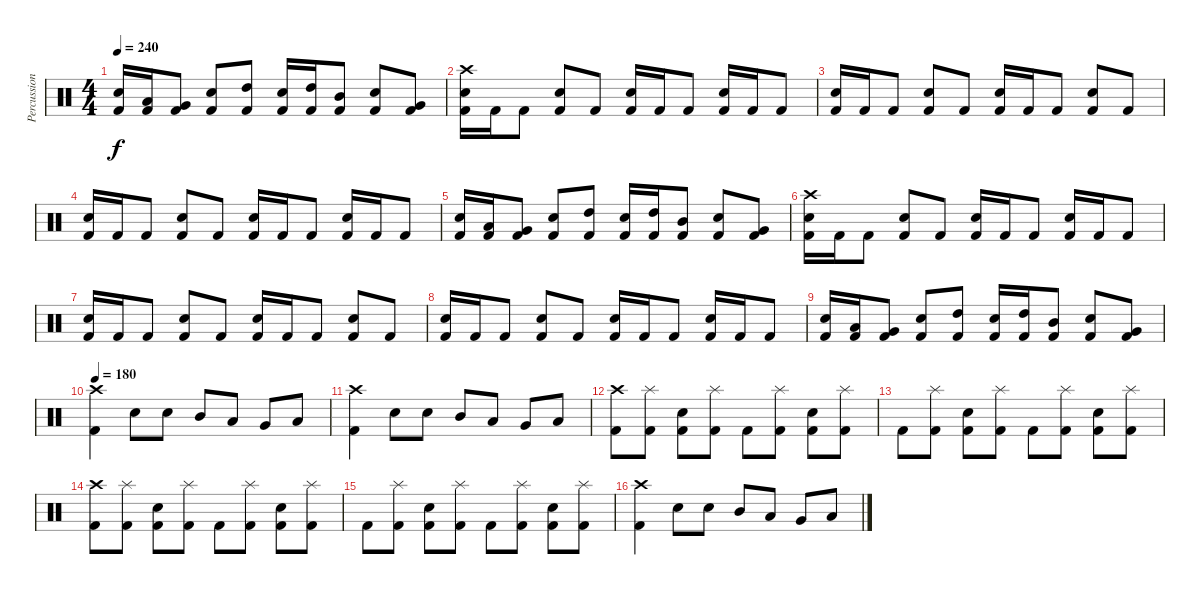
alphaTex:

\track ("Percussion" "Percussion") {mute instrument percussion}
\staff {score}
\articulation defaults
\ts (4 4)
\tempo 240
\clef neutral
\ks c
("Electric Snare (hit)" "Kick (hit) 2").16{dy f} ("Low Tom (hit)" "Kick (hit) 2").16 ("Very Low Tom (hit)" "Kick (hit) 2").8 ("Electric Snare (hit)" "Kick (hit) 2").8 ("High Tom (hit)" "Kick (hit) 2").8 ("Electric Snare (hit)" "Kick (hit) 2").16 ("High Tom (hit)" "Kick (hit) 2").16 ("Mid Tom (hit)" "Kick (hit) 2").8 ("Electric Snare (hit)" "Kick (hit) 2").8 ("Very Low Tom (hit)" "Kick (hit) 2").8 |
("Crash high (hit)" "Electric Snare (hit)" "Kick (hit) 2").16 "Kick (hit) 2".16 "Kick (hit) 2".8 ("Electric Snare (hit)" "Kick (hit) 2").8 "Kick (hit) 2".8 ("Electric Snare (hit)" "Kick (hit) 2").16 "Kick (hit) 2".16 "Kick (hit) 2".8 ("Electric Snare (hit)" "Kick (hit) 2").16 "Kick (hit) 2".16 "Kick (hit) 2".8 |
("Electric Snare (hit)" "Kick (hit) 2").16 "Kick (hit) 2".16 "Kick (hit) 2".8 ("Electric Snare (hit)" "Kick (hit) 2").8 "Kick (hit) 2".8 ("Electric Snare (hit)" "Kick (hit) 2").16 "Kick (hit) 2".16 "Kick (hit) 2".8 ("Electric Snare (hit)" "Kick (hit) 2").8 "Kick (hit) 2".8 |
("Electric Snare (hit)" "Kick (hit) 2").16 "Kick (hit) 2".16 "Kick (hit) 2".8 ("Electric Snare (hit)" "Kick (hit) 2").8 "Kick (hit) 2".8 ("Electric Snare (hit)" "Kick (hit) 2").16 "Kick (hit) 2".16 "Kick (hit) 2".8 ("Electric Snare (hit)" "Kick (hit) 2").16 "Kick (hit) 2".16 "Kick (hit) 2".8 |
("Electric Snare (hit)" "Kick (hit) 2").16 ("Low Tom (hit)" "Kick (hit) 2").16 ("Very Low Tom (hit)" "Kick (hit) 2").8 ("Electric Snare (hit)" "Kick (hit) 2").8 ("High Tom (hit)" "Kick (hit) 2").8 ("Electric Snare (hit)" "Kick (hit) 2").16 ("High Tom (hit)" "Kick (hit) 2").16 ("Mid Tom (hit)" "Kick (hit) 2").8 ("Electric Snare (hit)" "Kick (hit) 2").8 ("Very Low Tom (hit)" "Kick (hit) 2").8 |
("Crash high (hit)" "Electric Snare (hit)" "Kick (hit) 2").16 "Kick (hit) 2".16 "Kick (hit) 2".8 ("Electric Snare (hit)" "Kick (hit) 2").8 "Kick (hit) 2".8 ("Electric Snare (hit)" "Kick (hit) 2").16 "Kick (hit) 2".16 "Kick (hit) 2".8 ("Electric Snare (hit)" "Kick (hit) 2").16 "Kick (hit) 2".16 "Kick (hit) 2".8 |
("Electric Snare (hit)" "Kick (hit) 2").16 "Kick (hit) 2".16 "Kick (hit) 2".8 ("Electric Snare (hit)" "Kick (hit) 2").8 "Kick (hit) 2".8 ("Electric Snare (hit)" "Kick (hit) 2").16 "Kick (hit) 2".16 "Kick (hit) 2".8 ("Electric Snare (hit)" "Kick (hit) 2").8 "Kick (hit) 2".8 |
("Electric Snare (hit)" "Kick (hit) 2").16 "Kick (hit) 2".16 "Kick (hit) 2".8 ("Electric Snare (hit)" "Kick (hit) 2").8 "Kick (hit) 2".8 ("Electric Snare (hit)" "Kick (hit) 2").16 "Kick (hit) 2".16 "Kick (hit) 2".8 ("Electric Snare (hit)" "Kick (hit) 2").16 "Kick (hit) 2".16 "Kick (hit) 2".8 |
("Electric Snare (hit)" "Kick (hit) 2").16 ("Low Tom (hit)" "Kick (hit) 2").16 ("Very Low Tom (hit)" "Kick (hit) 2").8 ("Electric Snare (hit)" "Kick (hit) 2").8 ("High Tom (hit)" "Kick (hit) 2").8 ("Electric Snare (hit)" "Kick (hit) 2").16 ("High Tom (hit)" "Kick (hit) 2").16 ("Mid Tom (hit)" "Kick (hit) 2").8 ("Electric Snare (hit)" "Kick (hit) 2").8 ("Very Low Tom (hit)" "Kick (hit) 2").8 |
\tempo 180
("Crash high (hit)" "Kick (hit) 2").4 "Electric Snare (hit)".8 "Electric Snare (hit)".8 "Mid Tom (hit)".8 "Low Tom (hit)".8 "Very Low Tom (hit)".8 "Low Floor Tom (hit)".8 |
("Crash high (hit)" "Kick (hit) 2").4 "Electric Snare (hit)".8 "Electric Snare (hit)".8 "Mid Tom (hit)".8 "Low Tom (hit)".8 "Very Low Tom (hit)".8 "Low Floor Tom (hit)".8 |
("Crash high (hit)" "Kick (hit) 2").8 ("Splash (hit)" "Kick (hit) 2").8 ("Electric Snare (hit)" "Kick (hit) 2").8 ("Splash (hit)" "Kick (hit) 2").8 "Kick (hit) 2".8 ("Splash (hit)" "Kick (hit) 2").8 ("Electric Snare (hit)" "Kick (hit) 2").8 ("Splash (hit)" "Kick (hit) 2").8 |
"Kick (hit) 2".8 ("Splash (hit)" "Kick (hit) 2").8 ("Electric Snare (hit)" "Kick (hit) 2").8 ("Splash (hit)" "Kick (hit) 2").8 "Kick (hit) 2".8 ("Splash (hit)" "Kick (hit) 2").8 ("Electric Snare (hit)" "Kick (hit) 2").8 ("Splash (hit)" "Kick (hit) 2").8 |
("Crash high (hit)" "Kick (hit) 2").8 ("Splash (hit)" "Kick (hit) 2").8 ("Electric Snare (hit)" "Kick (hit) 2").8 ("Splash (hit)" "Kick (hit) 2").8 "Kick (hit) 2".8 ("Splash (hit)" "Kick (hit) 2").8 ("Electric Snare (hit)" "Kick (hit) 2").8 ("Splash (hit)" "Kick (hit) 2").8 |
"Kick (hit) 2".8 ("Splash (hit)" "Kick (hit) 2").8 ("Electric Snare (hit)" "Kick (hit) 2").8 ("Splash (hit)" "Kick (hit) 2").8 "Kick (hit) 2".8 ("Splash (hit)" "Kick (hit) 2").8 ("Electric Snare (hit)" "Kick (hit) 2").8 ("Splash (hit)" "Kick (hit) 2").8 |
("Crash high (hit)" "Kick (hit) 2").4 "Electric Snare (hit)".8 "Electric Snare (hit)".8 "Mid Tom (hit)".8 "Low Tom (hit)".8 "Very Low Tom (hit)".8 "Low Floor Tom (hit)".8
